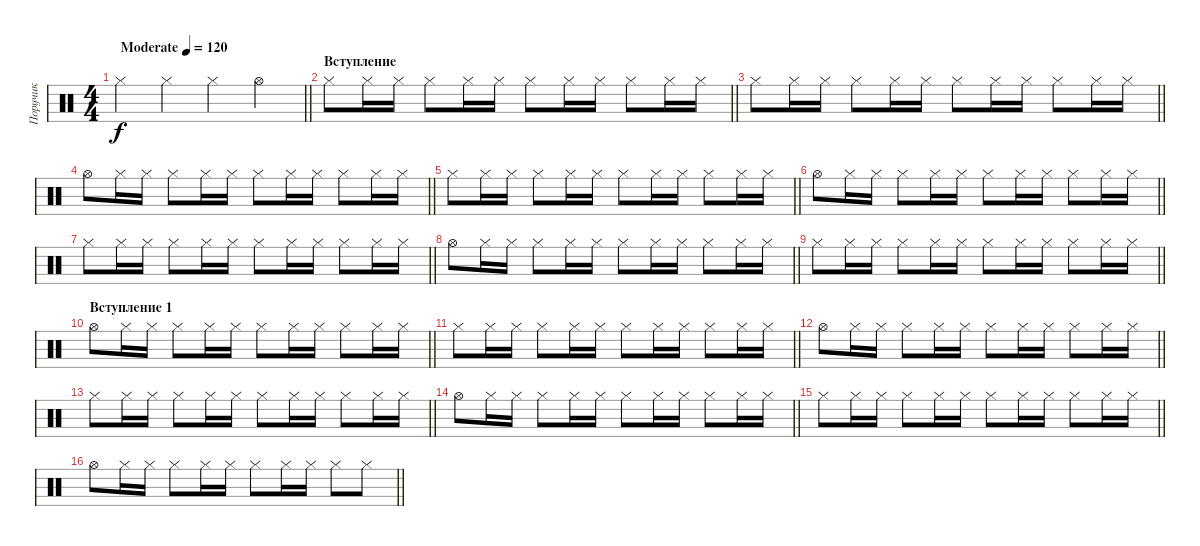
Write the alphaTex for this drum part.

\track ("Поручик" "Поручик") {instrument percussion}
\staff {score}
\articulation defaults
\ts (4 4)
\tempo (120 "Moderate")
\clef neutral
\barLineRight lightlight
\ks c "Hi-Hat (closed)".4{dy f} "Hi-Hat (closed)".4 "Hi-Hat (closed)".4 "Hi-Hat (open)".4
|
\section ("" "Вступление")
\barLineRight lightlight "Hi-Hat (closed)".8 "Hi-Hat (closed)".16 "Hi-Hat (closed)".16 "Hi-Hat (closed)".8 "Hi-Hat (closed)".16 "Hi-Hat (closed)".16 "Hi-Hat (closed)".8 "Hi-Hat (closed)".16 "Hi-Hat (closed)".16 "Hi-Hat (closed)".8 "Hi-Hat (closed)".16 "Hi-Hat (closed)".16
|
\barLineRight lightlight "Hi-Hat (closed)".8 "Hi-Hat (closed)".16 "Hi-Hat (closed)".16 "Hi-Hat (closed)".8 "Hi-Hat (closed)".16 "Hi-Hat (closed)".16 "Hi-Hat (closed)".8 "Hi-Hat (closed)".16 "Hi-Hat (closed)".16 "Hi-Hat (closed)".8 "Hi-Hat (closed)".16 "Hi-Hat (closed)".16
|
\barLineRight lightlight "Hi-Hat (open)".8 "Hi-Hat (closed)".16 "Hi-Hat (closed)".16 "Hi-Hat (closed)".8 "Hi-Hat (closed)".16 "Hi-Hat (closed)".16 "Hi-Hat (closed)".8 "Hi-Hat (closed)".16 "Hi-Hat (closed)".16 "Hi-Hat (closed)".8 "Hi-Hat (closed)".16 "Hi-Hat (closed)".16
|
\barLineRight lightlight "Hi-Hat (closed)".8 "Hi-Hat (closed)".16 "Hi-Hat (closed)".16 "Hi-Hat (closed)".8 "Hi-Hat (closed)".16 "Hi-Hat (closed)".16 "Hi-Hat (closed)".8 "Hi-Hat (closed)".16 "Hi-Hat (closed)".16 "Hi-Hat (closed)".8 "Hi-Hat (closed)".16 "Hi-Hat (closed)".16
|
\barLineRight lightlight "Hi-Hat (open)".8 "Hi-Hat (closed)".16 "Hi-Hat (closed)".16 "Hi-Hat (closed)".8 "Hi-Hat (closed)".16 "Hi-Hat (closed)".16 "Hi-Hat (closed)".8 "Hi-Hat (closed)".16 "Hi-Hat (closed)".16 "Hi-Hat (closed)".8 "Hi-Hat (closed)".16 "Hi-Hat (closed)".16
|
\barLineRight lightlight "Hi-Hat (closed)".8 "Hi-Hat (closed)".16 "Hi-Hat (closed)".16 "Hi-Hat (closed)".8 "Hi-Hat (closed)".16 "Hi-Hat (closed)".16 "Hi-Hat (closed)".8 "Hi-Hat (closed)".16 "Hi-Hat (closed)".16 "Hi-Hat (closed)".8 "Hi-Hat (closed)".16 "Hi-Hat (closed)".16
|
\barLineRight lightlight "Hi-Hat (open)".8 "Hi-Hat (closed)".16 "Hi-Hat (closed)".16 "Hi-Hat (closed)".8 "Hi-Hat (closed)".16 "Hi-Hat (closed)".16 "Hi-Hat (closed)".8 "Hi-Hat (closed)".16 "Hi-Hat (closed)".16 "Hi-Hat (closed)".8 "Hi-Hat (closed)".16 "Hi-Hat (closed)".16
|
\barLineRight lightlight "Hi-Hat (closed)".8 "Hi-Hat (closed)".16 "Hi-Hat (closed)".16 "Hi-Hat (closed)".8 "Hi-Hat (closed)".16 "Hi-Hat (closed)".16 "Hi-Hat (closed)".8 "Hi-Hat (closed)".16 "Hi-Hat (closed)".16 "Hi-Hat (closed)".8 "Hi-Hat (closed)".16 "Hi-Hat (closed)".16
|
\section ("" "Вступление 1")
\barLineRight lightlight "Hi-Hat (open)".8 "Hi-Hat (closed)".16 "Hi-Hat (closed)".16 "Hi-Hat (closed)".8 "Hi-Hat (closed)".16 "Hi-Hat (closed)".16 "Hi-Hat (closed)".8 "Hi-Hat (closed)".16 "Hi-Hat (closed)".16 "Hi-Hat (closed)".8 "Hi-Hat (closed)".16 "Hi-Hat (closed)".16
|
\barLineRight lightlight "Hi-Hat (closed)".8 "Hi-Hat (closed)".16 "Hi-Hat (closed)".16 "Hi-Hat (closed)".8 "Hi-Hat (closed)".16 "Hi-Hat (closed)".16 "Hi-Hat (closed)".8 "Hi-Hat (closed)".16 "Hi-Hat (closed)".16 "Hi-Hat (closed)".8 "Hi-Hat (closed)".16 "Hi-Hat (closed)".16
|
\barLineRight lightlight "Hi-Hat (open)".8 "Hi-Hat (closed)".16 "Hi-Hat (closed)".16 "Hi-Hat (closed)".8 "Hi-Hat (closed)".16 "Hi-Hat (closed)".16 "Hi-Hat (closed)".8 "Hi-Hat (closed)".16 "Hi-Hat (closed)".16 "Hi-Hat (closed)".8 "Hi-Hat (closed)".16 "Hi-Hat (closed)".16
|
\barLineRight lightlight "Hi-Hat (closed)".8 "Hi-Hat (closed)".16 "Hi-Hat (closed)".16 "Hi-Hat (closed)".8 "Hi-Hat (closed)".16 "Hi-Hat (closed)".16 "Hi-Hat (closed)".8 "Hi-Hat (closed)".16 "Hi-Hat (closed)".16 "Hi-Hat (closed)".8 "Hi-Hat (closed)".16 "Hi-Hat (closed)".16
|
\barLineRight lightlight "Hi-Hat (open)".8 "Hi-Hat (closed)".16 "Hi-Hat (closed)".16 "Hi-Hat (closed)".8 "Hi-Hat (closed)".16 "Hi-Hat (closed)".16 "Hi-Hat (closed)".8 "Hi-Hat (closed)".16 "Hi-Hat (closed)".16 "Hi-Hat (closed)".8 "Hi-Hat (closed)".16 "Hi-Hat (closed)".16
|
\barLineRight lightlight "Hi-Hat (closed)".8 "Hi-Hat (closed)".16 "Hi-Hat (closed)".16 "Hi-Hat (closed)".8 "Hi-Hat (closed)".16 "Hi-Hat (closed)".16 "Hi-Hat (closed)".8 "Hi-Hat (closed)".16 "Hi-Hat (closed)".16 "Hi-Hat (closed)".8 "Hi-Hat (closed)".16 "Hi-Hat (closed)".16
|
\barLineRight lightlight "Hi-Hat (open)".8 "Hi-Hat (closed)".16 "Hi-Hat (closed)".16 "Hi-Hat (closed)".8 "Hi-Hat (closed)".16 "Hi-Hat (closed)".16 "Hi-Hat (closed)".8 "Hi-Hat (closed)".16 "Hi-Hat (closed)".16 "Hi-Hat (closed)".8 "Hi-Hat (closed)".8
